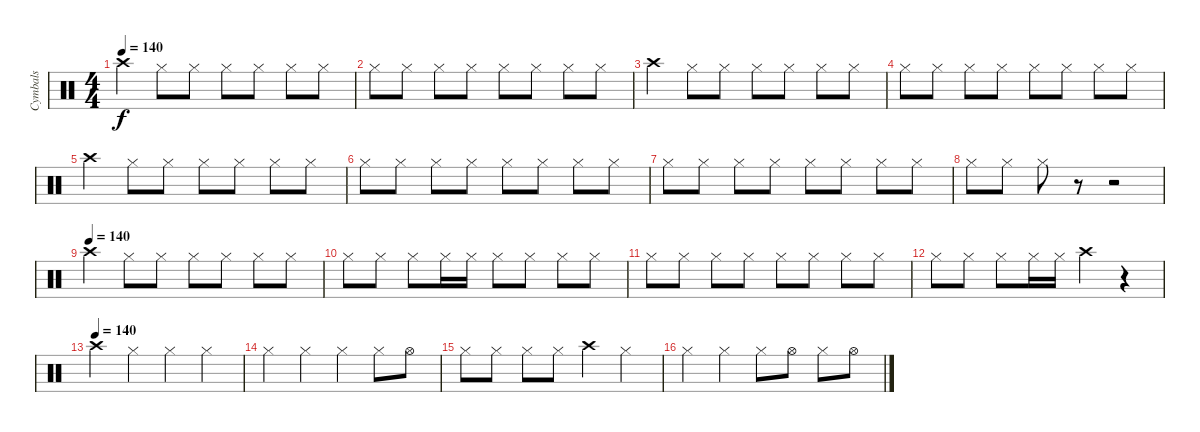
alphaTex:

\track ("Cymbals" "Cymbals") {instrument percussion}
\staff {score}
\articulation defaults
\ts (4 4)
\tempo 140
\clef neutral
\ks c "Crash high (hit)".4{dy f} "Hi-Hat (closed)".8 "Hi-Hat (closed)".8 "Hi-Hat (closed)".8 "Hi-Hat (closed)".8 "Hi-Hat (closed)".8 "Hi-Hat (closed)".8
|
"Hi-Hat (closed)".8 "Hi-Hat (closed)".8 "Hi-Hat (closed)".8 "Hi-Hat (closed)".8 "Hi-Hat (closed)".8 "Hi-Hat (closed)".8 "Hi-Hat (closed)".8 "Hi-Hat (closed)".8 |
"Crash high (hit)".4 "Hi-Hat (closed)".8 "Hi-Hat (closed)".8 "Hi-Hat (closed)".8 "Hi-Hat (closed)".8 "Hi-Hat (closed)".8 "Hi-Hat (closed)".8 |
"Hi-Hat (closed)".8 "Hi-Hat (closed)".8 "Hi-Hat (closed)".8 "Hi-Hat (closed)".8 "Hi-Hat (closed)".8 "Hi-Hat (closed)".8 "Hi-Hat (closed)".8 "Hi-Hat (closed)".8 |
"Crash high (hit)".4 "Hi-Hat (closed)".8 "Hi-Hat (closed)".8 "Hi-Hat (closed)".8 "Hi-Hat (closed)".8 "Hi-Hat (closed)".8 "Hi-Hat (closed)".8 |
"Hi-Hat (closed)".8 "Hi-Hat (closed)".8 "Hi-Hat (closed)".8 "Hi-Hat (closed)".8 "Hi-Hat (closed)".8 "Hi-Hat (closed)".8 "Hi-Hat (closed)".8 "Hi-Hat (closed)".8 |
"Hi-Hat (closed)".8 "Hi-Hat (closed)".8 "Hi-Hat (closed)".8 "Hi-Hat (closed)".8 "Hi-Hat (closed)".8 "Hi-Hat (closed)".8 "Hi-Hat (closed)".8 "Hi-Hat (closed)".8 |
"Hi-Hat (closed)".8 "Hi-Hat (closed)".8 "Hi-Hat (closed)".8 r.8 r.2 |
\tempo (140)
"Crash high (hit)".4 "Hi-Hat (closed)".8 "Hi-Hat (closed)".8 "Hi-Hat (closed)".8 "Hi-Hat (closed)".8 "Hi-Hat (closed)".8 "Hi-Hat (closed)".8 |
"Hi-Hat (closed)".8 "Hi-Hat (closed)".8 "Hi-Hat (closed)".8 "Hi-Hat (closed)".16 "Hi-Hat (closed)".16 "Hi-Hat (closed)".8 "Hi-Hat (closed)".8 "Hi-Hat (closed)".8 "Hi-Hat (closed)".8 |
"Hi-Hat (closed)".8 "Hi-Hat (closed)".8 "Hi-Hat (closed)".8 "Hi-Hat (closed)".8 "Hi-Hat (closed)".8 "Hi-Hat (closed)".8 "Hi-Hat (closed)".8 "Hi-Hat (closed)".8 |
"Hi-Hat (closed)".8 "Hi-Hat (closed)".8 "Hi-Hat (closed)".8 "Hi-Hat (closed)".16 "Hi-Hat (closed)".16 "Crash high (hit)".4 r.4 |
\tempo (140)
"Crash high (hit)".4 "Hi-Hat (closed)".4 "Hi-Hat (closed)".4 "Hi-Hat (closed)".4 |
"Hi-Hat (closed)".4 "Hi-Hat (closed)".4 "Hi-Hat (closed)".4 "Hi-Hat (closed)".8 "Hi-Hat (open)".8 |
"Hi-Hat (closed)".8 "Hi-Hat (closed)".8 "Hi-Hat (closed)".8 "Hi-Hat (closed)".8 "Crash high (hit)".4 "Hi-Hat (closed)".4 |
"Hi-Hat (closed)".4 "Hi-Hat (closed)".4 "Hi-Hat (closed)".8 "Hi-Hat (open)".8 "Hi-Hat (closed)".8 "Hi-Hat (open)".8
